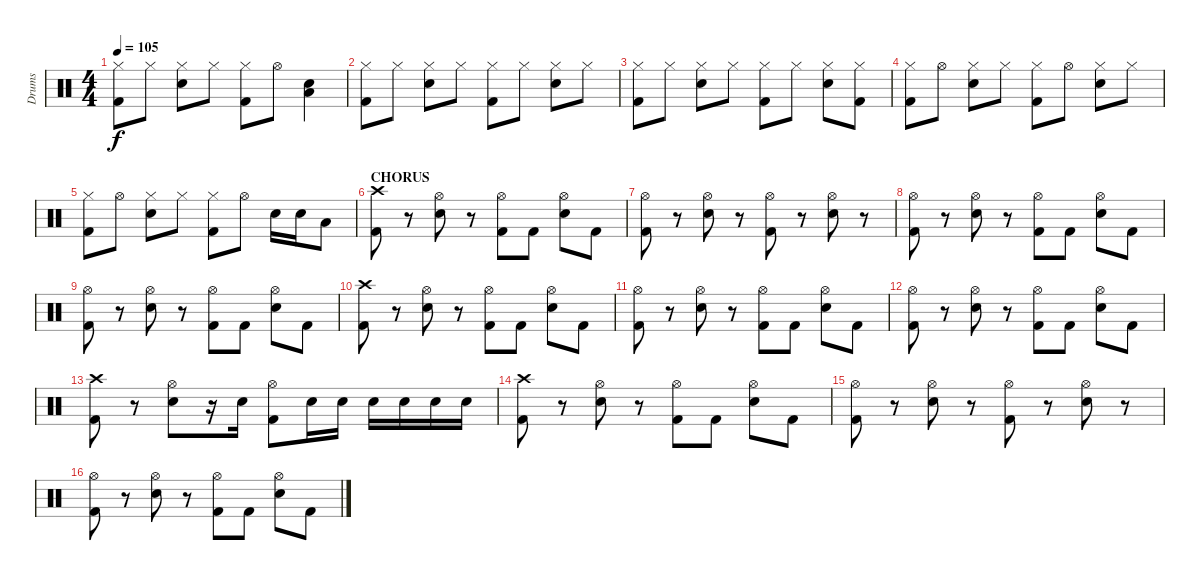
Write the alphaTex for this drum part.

\track ("Drums" "Drums") {instrument percussion}
\staff {score}
\articulation defaults
\ts (4 4)
\tempo 105
\clef neutral
\ks c
("Hi-Hat (closed)" "Kick (hit) 2").8{dy f} "Hi-Hat (closed)".8 ("Hi-Hat (closed)" "Electric Snare (hit)").8 "Hi-Hat (closed)".8 ("Hi-Hat (closed)" "Kick (hit) 2").8 "Hi-Hat (open)".8 ("Low Tom (hit)" "Electric Snare (hit)").4 |
("Hi-Hat (closed)" "Kick (hit) 2").8 "Hi-Hat (closed)".8 ("Hi-Hat (closed)" "Electric Snare (hit)").8 "Hi-Hat (closed)".8 ("Hi-Hat (closed)" "Kick (hit) 2").8 "Hi-Hat (closed)".8 ("Hi-Hat (closed)" "Electric Snare (hit)").8 "Hi-Hat (closed)".8 |
("Hi-Hat (closed)" "Kick (hit) 2").8 "Hi-Hat (closed)".8 ("Hi-Hat (closed)" "Electric Snare (hit)").8 "Hi-Hat (closed)".8 ("Hi-Hat (closed)" "Kick (hit) 2").8 "Hi-Hat (closed)".8 ("Hi-Hat (closed)" "Electric Snare (hit)").8 ("Hi-Hat (closed)" "Kick (hit) 2").8 |
("Hi-Hat (closed)" "Kick (hit) 2").8 "Hi-Hat (open)".8 ("Hi-Hat (closed)" "Electric Snare (hit)").8 "Hi-Hat (closed)".8 ("Hi-Hat (closed)" "Kick (hit) 2").8 "Hi-Hat (open)".8 ("Hi-Hat (closed)" "Electric Snare (hit)").8 "Hi-Hat (closed)".8 |
("Hi-Hat (closed)" "Kick (hit) 2").8 "Hi-Hat (open)".8 ("Hi-Hat (closed)" "Electric Snare (hit)").8 "Hi-Hat (closed)".8 ("Hi-Hat (closed)" "Kick (hit) 2").8 "Hi-Hat (open)".8 "Electric Snare (hit)".16 "Electric Snare (hit)".16 "Low Tom (hit)".8 |
\section ("" "CHORUS")
("Crash high (hit)" "Kick (hit) 2").8 r.8 ("Hi-Hat (open)" "Electric Snare (hit)").8 r.8 ("Hi-Hat (open)" "Kick (hit) 2").8 "Kick (hit) 2".8 ("Hi-Hat (open)" "Electric Snare (hit)").8 "Kick (hit) 2".8 |
("Hi-Hat (open)" "Kick (hit) 2").8 r.8 ("Hi-Hat (open)" "Electric Snare (hit)").8 r.8 ("Hi-Hat (open)" "Kick (hit) 2").8 r.8 ("Hi-Hat (open)" "Electric Snare (hit)").8 r.8 |
("Hi-Hat (open)" "Kick (hit) 2").8 r.8 ("Hi-Hat (open)" "Electric Snare (hit)").8 r.8 ("Hi-Hat (open)" "Kick (hit) 2").8 "Kick (hit) 2".8 ("Hi-Hat (open)" "Electric Snare (hit)").8 "Kick (hit) 2".8 |
("Hi-Hat (open)" "Kick (hit) 2").8 r.8 ("Hi-Hat (open)" "Electric Snare (hit)").8 r.8 ("Hi-Hat (open)" "Kick (hit) 2").8 "Kick (hit) 2".8 ("Hi-Hat (open)" "Electric Snare (hit)").8 "Kick (hit) 2".8 |
("Crash high (hit)" "Kick (hit) 2").8 r.8 ("Hi-Hat (open)" "Electric Snare (hit)").8 r.8 ("Hi-Hat (open)" "Kick (hit) 2").8 "Kick (hit) 2".8 ("Hi-Hat (open)" "Electric Snare (hit)").8 "Kick (hit) 2".8 |
("Hi-Hat (open)" "Kick (hit) 2").8 r.8 ("Hi-Hat (open)" "Electric Snare (hit)").8 r.8 ("Hi-Hat (open)" "Kick (hit) 2").8 "Kick (hit) 2".8 ("Hi-Hat (open)" "Electric Snare (hit)").8 "Kick (hit) 2".8 |
("Hi-Hat (open)" "Kick (hit) 2").8 r.8 ("Hi-Hat (open)" "Electric Snare (hit)").8 r.8 ("Hi-Hat (open)" "Kick (hit) 2").8 "Kick (hit) 2".8 ("Hi-Hat (open)" "Electric Snare (hit)").8 "Kick (hit) 2".8 |
("Crash high (hit)" "Kick (hit) 2").8 r.8 ("Hi-Hat (open)" "Electric Snare (hit)").8 r.16 "Electric Snare (hit)".16 ("Hi-Hat (open)" "Kick (hit) 2").8 "Electric Snare (hit)".16 "Electric Snare (hit)".16 "Electric Snare (hit)".16 "Electric Snare (hit)".16 "Electric Snare (hit)".16 "Electric Snare (hit)".16 |
("Crash high (hit)" "Kick (hit) 2").8 r.8 ("Hi-Hat (open)" "Electric Snare (hit)").8 r.8 ("Hi-Hat (open)" "Kick (hit) 2").8 "Kick (hit) 2".8 ("Hi-Hat (open)" "Electric Snare (hit)").8 "Kick (hit) 2".8 |
("Hi-Hat (open)" "Kick (hit) 2").8 r.8 ("Hi-Hat (open)" "Electric Snare (hit)").8 r.8 ("Hi-Hat (open)" "Kick (hit) 2").8 r.8 ("Hi-Hat (open)" "Electric Snare (hit)").8 r.8 |
("Hi-Hat (open)" "Kick (hit) 2").8 r.8 ("Hi-Hat (open)" "Electric Snare (hit)").8 r.8 ("Hi-Hat (open)" "Kick (hit) 2").8 "Kick (hit) 2".8 ("Hi-Hat (open)" "Electric Snare (hit)").8 "Kick (hit) 2".8
